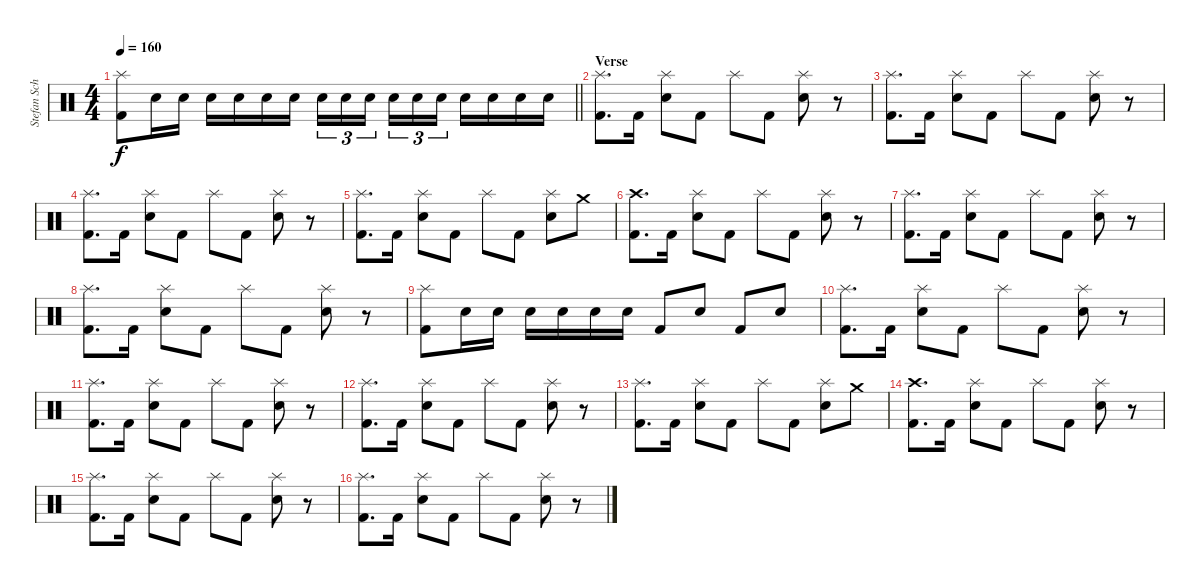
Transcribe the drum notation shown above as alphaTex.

\track ("Stefan Schwarzmann" "Stefan Sch") {instrument percussion}
\staff {score}
\articulation defaults
\ts (4 4)
\tempo 160
\clef neutral
\barLineRight lightlight
\ks c
("Splash (hit)" "Kick (hit) 2").8{dy f} "Snare (hit) 2".16 "Snare (hit) 2".16 "Snare (hit) 2".16 "Snare (hit) 2".16 "Snare (hit) 2".16 "Snare (hit) 2".16 "Snare (hit) 2".16{tu (3 2)} "Snare (hit) 2".16{tu (3 2)} "Snare (hit) 2".16{tu (3 2) beam splitsecondary} "Snare (hit) 2".16{tu (3 2)} "Snare (hit) 2".16{tu (3 2)} "Snare (hit) 2".16{tu (3 2)} "Snare (hit) 2".16 "Snare (hit) 2".16 "Snare (hit) 2".16 "Snare (hit) 2".16 |
\section ("" "Verse")
("Splash (hit)" "Kick (hit) 2").8{d} "Kick (hit) 2".16 ("Splash (hit)" "Snare (hit) 2").8 "Kick (hit) 2".8 "Splash (hit)".8 "Kick (hit) 2".8 ("Splash (hit)" "Snare (hit) 2").8 r.8 |
("Splash (hit)" "Kick (hit) 2").8{d} "Kick (hit) 2".16 ("Splash (hit)" "Snare (hit) 2").8 "Kick (hit) 2".8 "Splash (hit)".8 "Kick (hit) 2".8 ("Splash (hit)" "Snare (hit) 2").8 r.8 |
("Splash (hit)" "Kick (hit) 2").8{d} "Kick (hit) 2".16 ("Splash (hit)" "Snare (hit) 2").8 "Kick (hit) 2".8 "Splash (hit)".8 "Kick (hit) 2".8 ("Splash (hit)" "Snare (hit) 2").8 r.8 |
("Splash (hit)" "Kick (hit) 2").8{d} "Kick (hit) 2".16 ("Splash (hit)" "Snare (hit) 2").8 "Kick (hit) 2".8 "Splash (hit)".8 "Kick (hit) 2".8 ("Splash (hit)" "Snare (hit) 2").8 "Crash medium (hit)".8 |
("Crash high (hit)" "Kick (hit) 2").8{d} "Kick (hit) 2".16 ("Splash (hit)" "Snare (hit) 2").8 "Kick (hit) 2".8 "Splash (hit)".8 "Kick (hit) 2".8 ("Splash (hit)" "Snare (hit) 2").8 r.8 |
("Splash (hit)" "Kick (hit) 2").8{d} "Kick (hit) 2".16 ("Splash (hit)" "Snare (hit) 2").8 "Kick (hit) 2".8 "Splash (hit)".8 "Kick (hit) 2".8 ("Splash (hit)" "Snare (hit) 2").8 r.8 |
("Splash (hit)" "Kick (hit) 2").8{d} "Kick (hit) 2".16 ("Splash (hit)" "Snare (hit) 2").8 "Kick (hit) 2".8 "Splash (hit)".8 "Kick (hit) 2".8 ("Splash (hit)" "Snare (hit) 2").8 r.8 |
("Splash (hit)" "Kick (hit) 2").8 "Snare (hit) 2".16 "Snare (hit) 2".16 "Snare (hit) 2".16 "Snare (hit) 2".16 "Snare (hit) 2".16 "Snare (hit) 2".16 "Kick (hit) 2".8 "Snare (hit) 2".8 "Kick (hit) 2".8 "Snare (hit) 2".8 |
("Splash (hit)" "Kick (hit) 2").8{d} "Kick (hit) 2".16 ("Splash (hit)" "Snare (hit) 2").8 "Kick (hit) 2".8 "Splash (hit)".8 "Kick (hit) 2".8 ("Splash (hit)" "Snare (hit) 2").8 r.8 |
("Splash (hit)" "Kick (hit) 2").8{d} "Kick (hit) 2".16 ("Splash (hit)" "Snare (hit) 2").8 "Kick (hit) 2".8 "Splash (hit)".8 "Kick (hit) 2".8 ("Splash (hit)" "Snare (hit) 2").8 r.8 |
("Splash (hit)" "Kick (hit) 2").8{d} "Kick (hit) 2".16 ("Splash (hit)" "Snare (hit) 2").8 "Kick (hit) 2".8 "Splash (hit)".8 "Kick (hit) 2".8 ("Splash (hit)" "Snare (hit) 2").8 r.8 |
("Splash (hit)" "Kick (hit) 2").8{d} "Kick (hit) 2".16 ("Splash (hit)" "Snare (hit) 2").8 "Kick (hit) 2".8 "Splash (hit)".8 "Kick (hit) 2".8 ("Splash (hit)" "Snare (hit) 2").8 "Crash medium (hit)".8 |
("Crash high (hit)" "Kick (hit) 2").8{d} "Kick (hit) 2".16 ("Splash (hit)" "Snare (hit) 2").8 "Kick (hit) 2".8 "Splash (hit)".8 "Kick (hit) 2".8 ("Splash (hit)" "Snare (hit) 2").8 r.8 |
("Splash (hit)" "Kick (hit) 2").8{d} "Kick (hit) 2".16 ("Splash (hit)" "Snare (hit) 2").8 "Kick (hit) 2".8 "Splash (hit)".8 "Kick (hit) 2".8 ("Splash (hit)" "Snare (hit) 2").8 r.8 |
("Splash (hit)" "Kick (hit) 2").8{d} "Kick (hit) 2".16 ("Splash (hit)" "Snare (hit) 2").8 "Kick (hit) 2".8 "Splash (hit)".8 "Kick (hit) 2".8 ("Splash (hit)" "Snare (hit) 2").8 r.8
